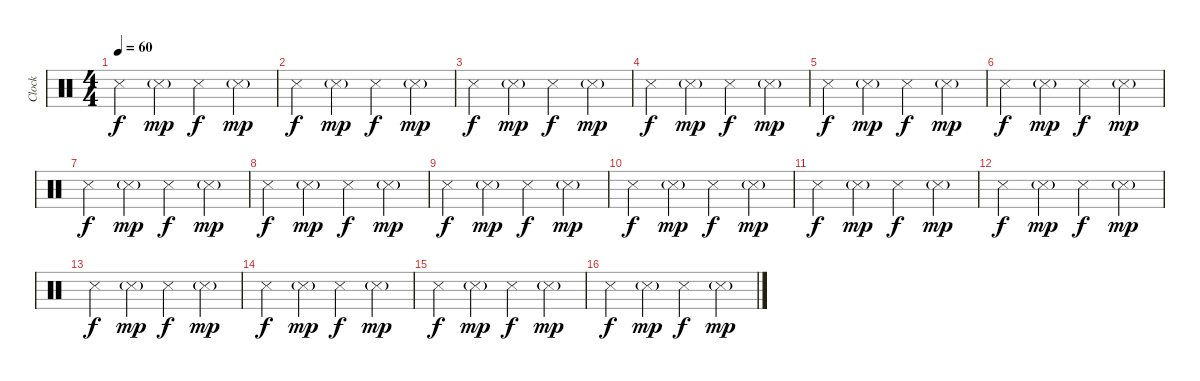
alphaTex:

\track ("Clock" "Clock") {instrument percussion}
\staff {score}
\articulation defaults
\ts (4 4)
\tempo 60
\clef neutral
\ks c "Metronome (hit)".4{dy f} "Metronome (hit)"{g}.4{dy mp} "Metronome (hit)".4{dy f} "Metronome (hit)"{g}.4{dy mp}
|
"Metronome (hit)".4{dy f} "Metronome (hit)"{g}.4{dy mp} "Metronome (hit)".4{dy f} "Metronome (hit)"{g}.4{dy mp} |
"Metronome (hit)".4{dy f} "Metronome (hit)"{g}.4{dy mp} "Metronome (hit)".4{dy f} "Metronome (hit)"{g}.4{dy mp} |
"Metronome (hit)".4{dy f} "Metronome (hit)"{g}.4{dy mp} "Metronome (hit)".4{dy f} "Metronome (hit)"{g}.4{dy mp} |
"Metronome (hit)".4{dy f} "Metronome (hit)"{g}.4{dy mp} "Metronome (hit)".4{dy f} "Metronome (hit)"{g}.4{dy mp} |
"Metronome (hit)".4{dy f} "Metronome (hit)"{g}.4{dy mp} "Metronome (hit)".4{dy f} "Metronome (hit)"{g}.4{dy mp} |
"Metronome (hit)".4{dy f} "Metronome (hit)"{g}.4{dy mp} "Metronome (hit)".4{dy f} "Metronome (hit)"{g}.4{dy mp} |
"Metronome (hit)".4{dy f} "Metronome (hit)"{g}.4{dy mp} "Metronome (hit)".4{dy f} "Metronome (hit)"{g}.4{dy mp} |
"Metronome (hit)".4{dy f} "Metronome (hit)"{g}.4{dy mp} "Metronome (hit)".4{dy f} "Metronome (hit)"{g}.4{dy mp} |
"Metronome (hit)".4{dy f} "Metronome (hit)"{g}.4{dy mp} "Metronome (hit)".4{dy f} "Metronome (hit)"{g}.4{dy mp} |
"Metronome (hit)".4{dy f} "Metronome (hit)"{g}.4{dy mp} "Metronome (hit)".4{dy f} "Metronome (hit)"{g}.4{dy mp} |
"Metronome (hit)".4{dy f} "Metronome (hit)"{g}.4{dy mp} "Metronome (hit)".4{dy f} "Metronome (hit)"{g}.4{dy mp} |
"Metronome (hit)".4{dy f} "Metronome (hit)"{g}.4{dy mp} "Metronome (hit)".4{dy f} "Metronome (hit)"{g}.4{dy mp} |
"Metronome (hit)".4{dy f} "Metronome (hit)"{g}.4{dy mp} "Metronome (hit)".4{dy f} "Metronome (hit)"{g}.4{dy mp} |
"Metronome (hit)".4{dy f} "Metronome (hit)"{g}.4{dy mp} "Metronome (hit)".4{dy f} "Metronome (hit)"{g}.4{dy mp} |
"Metronome (hit)".4{dy f} "Metronome (hit)"{g}.4{dy mp} "Metronome (hit)".4{dy f} "Metronome (hit)"{g}.4{dy mp}
